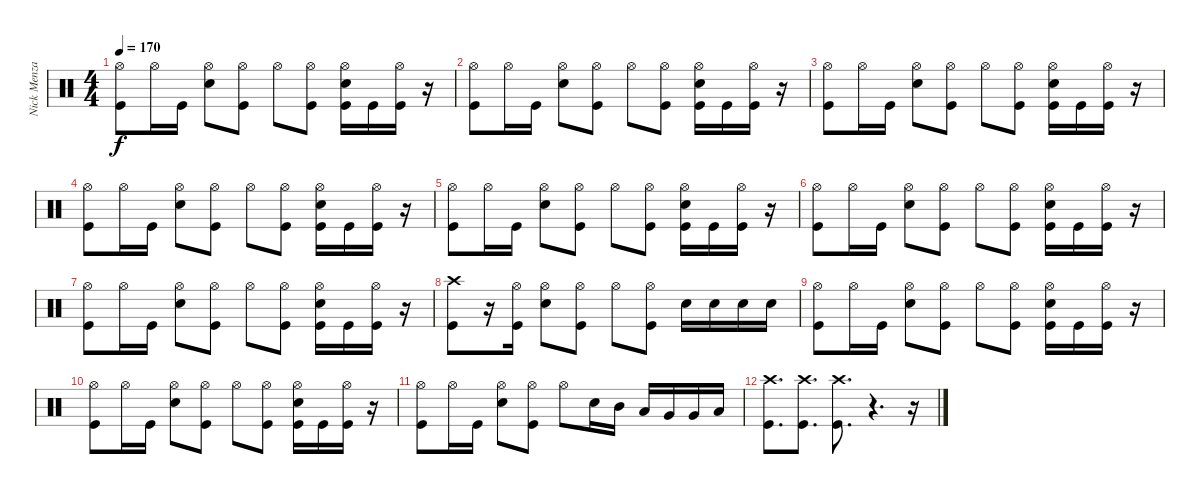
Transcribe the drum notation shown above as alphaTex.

\track ("Nick Menza" "Nick Menza") {instrument percussion}
\staff {score}
\articulation defaults
\ts (4 4)
\tempo 170
\clef neutral
\ks c
("Hi-Hat (open)" "Kick (hit)").8{dy f} "Hi-Hat (open)".16 "Kick (hit)".16 ("Hi-Hat (open)" "Snare (hit) 2").8 ("Hi-Hat (open)" "Kick (hit)").8 "Hi-Hat (open)".8 ("Hi-Hat (open)" "Kick (hit)").8 ("Hi-Hat (open)" "Snare (hit) 2" "Kick (hit)").16 "Kick (hit)".16 ("Hi-Hat (open)" "Kick (hit)").16 r.16 |
("Hi-Hat (open)" "Kick (hit)").8 "Hi-Hat (open)".16 "Kick (hit)".16 ("Hi-Hat (open)" "Snare (hit) 2").8 ("Hi-Hat (open)" "Kick (hit)").8 "Hi-Hat (open)".8 ("Hi-Hat (open)" "Kick (hit)").8 ("Hi-Hat (open)" "Snare (hit) 2" "Kick (hit)").16 "Kick (hit)".16 ("Hi-Hat (open)" "Kick (hit)").16 r.16 |
("Hi-Hat (open)" "Kick (hit)").8 "Hi-Hat (open)".16 "Kick (hit)".16 ("Hi-Hat (open)" "Snare (hit) 2").8 ("Hi-Hat (open)" "Kick (hit)").8 "Hi-Hat (open)".8 ("Hi-Hat (open)" "Kick (hit)").8 ("Hi-Hat (open)" "Snare (hit) 2" "Kick (hit)").16 "Kick (hit)".16 ("Hi-Hat (open)" "Kick (hit)").16 r.16 |
("Hi-Hat (open)" "Kick (hit)").8 "Hi-Hat (open)".16 "Kick (hit)".16 ("Hi-Hat (open)" "Snare (hit) 2").8 ("Hi-Hat (open)" "Kick (hit)").8 "Hi-Hat (open)".8 ("Hi-Hat (open)" "Kick (hit)").8 ("Hi-Hat (open)" "Snare (hit) 2" "Kick (hit)").16 "Kick (hit)".16 ("Hi-Hat (open)" "Kick (hit)").16 r.16 |
("Hi-Hat (open)" "Kick (hit)").8 "Hi-Hat (open)".16 "Kick (hit)".16 ("Hi-Hat (open)" "Snare (hit) 2").8 ("Hi-Hat (open)" "Kick (hit)").8 "Hi-Hat (open)".8 ("Hi-Hat (open)" "Kick (hit)").8 ("Hi-Hat (open)" "Snare (hit) 2" "Kick (hit)").16 "Kick (hit)".16 ("Hi-Hat (open)" "Kick (hit)").16 r.16 |
("Hi-Hat (open)" "Kick (hit)").8 "Hi-Hat (open)".16 "Kick (hit)".16 ("Hi-Hat (open)" "Snare (hit) 2").8 ("Hi-Hat (open)" "Kick (hit)").8 "Hi-Hat (open)".8 ("Hi-Hat (open)" "Kick (hit)").8 ("Hi-Hat (open)" "Snare (hit) 2" "Kick (hit)").16 "Kick (hit)".16 ("Hi-Hat (open)" "Kick (hit)").16 r.16 |
("Hi-Hat (open)" "Kick (hit)").8 "Hi-Hat (open)".16 "Kick (hit)".16 ("Hi-Hat (open)" "Snare (hit) 2").8 ("Hi-Hat (open)" "Kick (hit)").8 "Hi-Hat (open)".8 ("Hi-Hat (open)" "Kick (hit)").8 ("Hi-Hat (open)" "Snare (hit) 2" "Kick (hit)").16 "Kick (hit)".16 ("Hi-Hat (open)" "Kick (hit)").16 r.16 |
("Crash high (hit)" "Kick (hit)").8 r.16 ("Hi-Hat (open)" "Kick (hit)").16 ("Hi-Hat (open)" "Snare (hit) 2").8 ("Hi-Hat (open)" "Kick (hit)").8 "Hi-Hat (open)".8 ("Hi-Hat (open)" "Kick (hit)").8 "Snare (hit) 2".16 "Snare (hit) 2".16 "Snare (hit) 2".16 "Snare (hit) 2".16 |
("Hi-Hat (open)" "Kick (hit)").8 "Hi-Hat (open)".16 "Kick (hit)".16 ("Hi-Hat (open)" "Snare (hit) 2").8 ("Hi-Hat (open)" "Kick (hit)").8 "Hi-Hat (open)".8 ("Hi-Hat (open)" "Kick (hit)").8 ("Hi-Hat (open)" "Snare (hit) 2" "Kick (hit)").16 "Kick (hit)".16 ("Hi-Hat (open)" "Kick (hit)").16 r.16 |
("Hi-Hat (open)" "Kick (hit)").8 "Hi-Hat (open)".16 "Kick (hit)".16 ("Hi-Hat (open)" "Snare (hit) 2").8 ("Hi-Hat (open)" "Kick (hit)").8 "Hi-Hat (open)".8 ("Hi-Hat (open)" "Kick (hit)").8 ("Hi-Hat (open)" "Snare (hit) 2" "Kick (hit)").16 "Kick (hit)".16 ("Hi-Hat (open)" "Kick (hit)").16 r.16 |
("Hi-Hat (open)" "Kick (hit)").8 "Hi-Hat (open)".16 "Kick (hit)".16 ("Hi-Hat (open)" "Snare (hit) 2").8 ("Hi-Hat (open)" "Kick (hit)").8 "Hi-Hat (open)".8 "Snare (hit) 2".16 "Mid Tom (hit)".16 "Low Tom (hit)".16 "Very Low Tom (hit)".16 "Very Low Tom (hit)".16 "Low Floor Tom (hit)".16 |
("Crash high (hit)" "Kick (hit)").8{d} ("Crash high (hit)" "Kick (hit)").8{d} ("Crash high (hit)" "Kick (hit)").8{d} r.4{d} r.16
